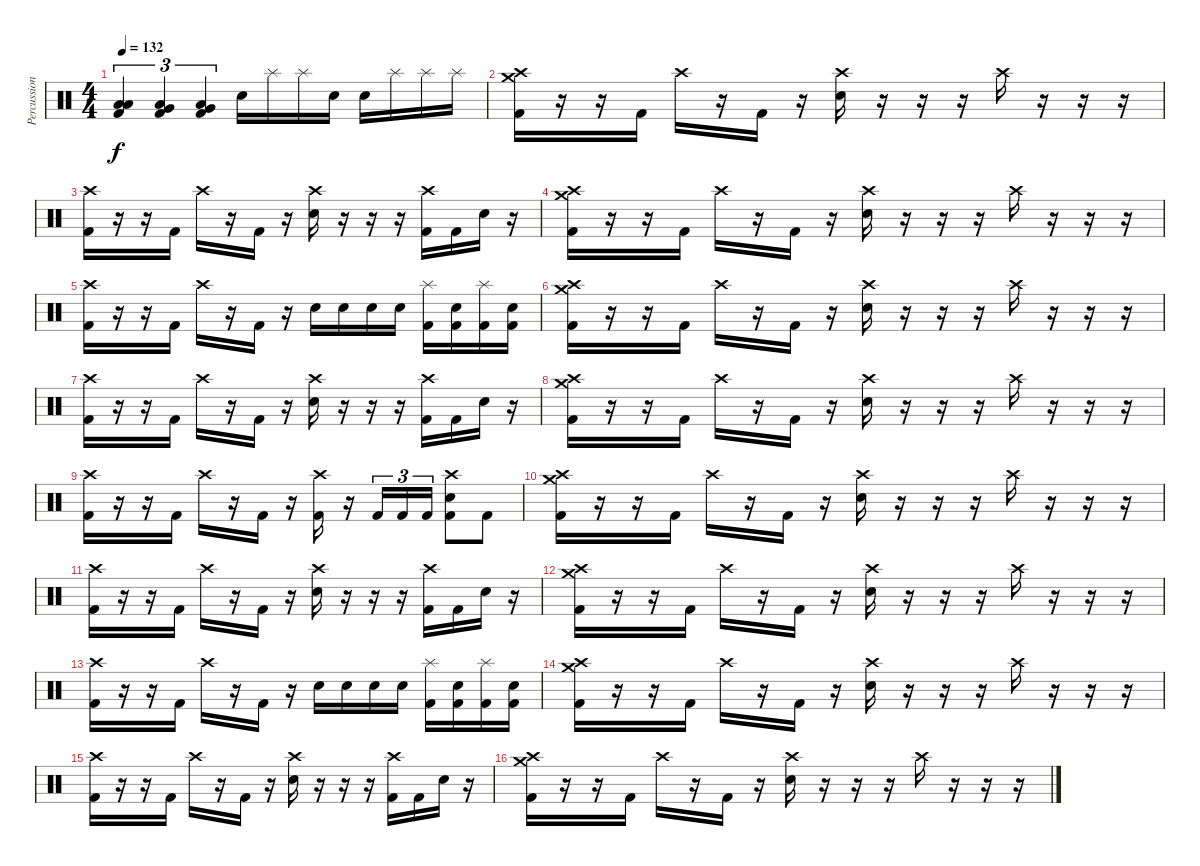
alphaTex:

\track ("Percussion" "Percussion") {instrument percussion}
\staff {score}
\articulation defaults
\ts (4 4)
\tempo 132
\clef neutral
\ks c
("Kick (hit) 2" "Low Tom (hit)" "Low Floor Tom (hit)").4{tu (3 2) dy f} ("Kick (hit) 2" "Low Tom (hit)" "Very Low Tom (hit)").4{tu (3 2)} ("Kick (hit) 2" "Low Tom (hit)" "Very Low Tom (hit)").4{tu (3 2)} "Snare (hit) 2".16 "Splash (hit)".16 "Splash (hit)".16 "Snare (hit) 2".16 "Snare (hit) 2".16 "Splash (hit)".16 "Splash (hit)".16 "Splash (hit)".16 |
("Kick (hit) 2" "Crash medium (hit)" "Crash high (hit)").16 r.16 r.16 "Kick (hit) 2".16 "Crash high (hit)".16 r.16 "Kick (hit) 2".16 r.16 ("Snare (hit) 2" "Crash high (hit)").16 r.16 r.16 r.16 "Crash high (hit)".16 r.16 r.16 r.16 |
("Kick (hit) 2" "Crash high (hit)").16 r.16 r.16 "Kick (hit) 2".16 "Crash high (hit)".16 r.16 "Kick (hit) 2".16 r.16 ("Snare (hit) 2" "Crash high (hit)").16 r.16 r.16 r.16 ("Kick (hit) 2" "Crash high (hit)").16 "Kick (hit) 2".16 "Snare (hit) 2".16 r.16 |
("Kick (hit) 2" "Crash medium (hit)" "Crash high (hit)").16 r.16 r.16 "Kick (hit) 2".16 "Crash high (hit)".16 r.16 "Kick (hit) 2".16 r.16 ("Snare (hit) 2" "Crash high (hit)").16 r.16 r.16 r.16 "Crash high (hit)".16 r.16 r.16 r.16 |
("Kick (hit) 2" "Crash high (hit)").16 r.16 r.16 "Kick (hit) 2".16 "Crash high (hit)".16 r.16 "Kick (hit) 2".16 r.16 "Snare (hit) 2".16 "Snare (hit) 2".16 "Snare (hit) 2".16 "Snare (hit) 2".16 ("Kick (hit) 2" "Splash (hit)").16 ("Kick (hit) 2" "Snare (hit) 2").16 ("Kick (hit) 2" "Splash (hit)").16 ("Kick (hit) 2" "Snare (hit) 2").16 |
("Kick (hit) 2" "Crash medium (hit)" "Crash high (hit)").16 r.16 r.16 "Kick (hit) 2".16 "Crash high (hit)".16 r.16 "Kick (hit) 2".16 r.16 ("Snare (hit) 2" "Crash high (hit)").16 r.16 r.16 r.16 "Crash high (hit)".16 r.16 r.16 r.16 |
("Kick (hit) 2" "Crash high (hit)").16 r.16 r.16 "Kick (hit) 2".16 "Crash high (hit)".16 r.16 "Kick (hit) 2".16 r.16 ("Snare (hit) 2" "Crash high (hit)").16 r.16 r.16 r.16 ("Kick (hit) 2" "Crash high (hit)").16 "Kick (hit) 2".16 "Snare (hit) 2".16 r.16 |
("Kick (hit) 2" "Crash medium (hit)" "Crash high (hit)").16 r.16 r.16 "Kick (hit) 2".16 "Crash high (hit)".16 r.16 "Kick (hit) 2".16 r.16 ("Snare (hit) 2" "Crash high (hit)").16 r.16 r.16 r.16 "Crash high (hit)".16 r.16 r.16 r.16 |
("Kick (hit) 2" "Crash high (hit)").16 r.16 r.16 "Kick (hit) 2".16 "Crash high (hit)".16 r.16 "Kick (hit) 2".16 r.16 ("Kick (hit) 2" "Crash high (hit)").16 r.16 "Kick (hit) 2".16{tu (3 2)} "Kick (hit) 2".16{tu (3 2)} "Kick (hit) 2".16{tu (3 2)} ("Kick (hit) 2" "Snare (hit) 2" "Crash high (hit)").8 "Kick (hit) 2".8 |
("Kick (hit) 2" "Crash medium (hit)" "Crash high (hit)").16 r.16 r.16 "Kick (hit) 2".16 "Crash high (hit)".16 r.16 "Kick (hit) 2".16 r.16 ("Snare (hit) 2" "Crash high (hit)").16 r.16 r.16 r.16 "Crash high (hit)".16 r.16 r.16 r.16 |
("Kick (hit) 2" "Crash high (hit)").16 r.16 r.16 "Kick (hit) 2".16 "Crash high (hit)".16 r.16 "Kick (hit) 2".16 r.16 ("Snare (hit) 2" "Crash high (hit)").16 r.16 r.16 r.16 ("Kick (hit) 2" "Crash high (hit)").16 "Kick (hit) 2".16 "Snare (hit) 2".16 r.16 |
("Kick (hit) 2" "Crash medium (hit)" "Crash high (hit)").16 r.16 r.16 "Kick (hit) 2".16 "Crash high (hit)".16 r.16 "Kick (hit) 2".16 r.16 ("Snare (hit) 2" "Crash high (hit)").16 r.16 r.16 r.16 "Crash high (hit)".16 r.16 r.16 r.16 |
("Kick (hit) 2" "Crash high (hit)").16 r.16 r.16 "Kick (hit) 2".16 "Crash high (hit)".16 r.16 "Kick (hit) 2".16 r.16 "Snare (hit) 2".16 "Snare (hit) 2".16 "Snare (hit) 2".16 "Snare (hit) 2".16 ("Kick (hit) 2" "Splash (hit)").16 ("Kick (hit) 2" "Snare (hit) 2").16 ("Kick (hit) 2" "Splash (hit)").16 ("Kick (hit) 2" "Snare (hit) 2").16 |
("Kick (hit) 2" "Crash medium (hit)" "Crash high (hit)").16 r.16 r.16 "Kick (hit) 2".16 "Crash high (hit)".16 r.16 "Kick (hit) 2".16 r.16 ("Snare (hit) 2" "Crash high (hit)").16 r.16 r.16 r.16 "Crash high (hit)".16 r.16 r.16 r.16 |
("Kick (hit) 2" "Crash high (hit)").16 r.16 r.16 "Kick (hit) 2".16 "Crash high (hit)".16 r.16 "Kick (hit) 2".16 r.16 ("Snare (hit) 2" "Crash high (hit)").16 r.16 r.16 r.16 ("Kick (hit) 2" "Crash high (hit)").16 "Kick (hit) 2".16 "Snare (hit) 2".16 r.16 |
("Kick (hit) 2" "Crash medium (hit)" "Crash high (hit)").16 r.16 r.16 "Kick (hit) 2".16 "Crash high (hit)".16 r.16 "Kick (hit) 2".16 r.16 ("Snare (hit) 2" "Crash high (hit)").16 r.16 r.16 r.16 "Crash high (hit)".16 r.16 r.16 r.16
